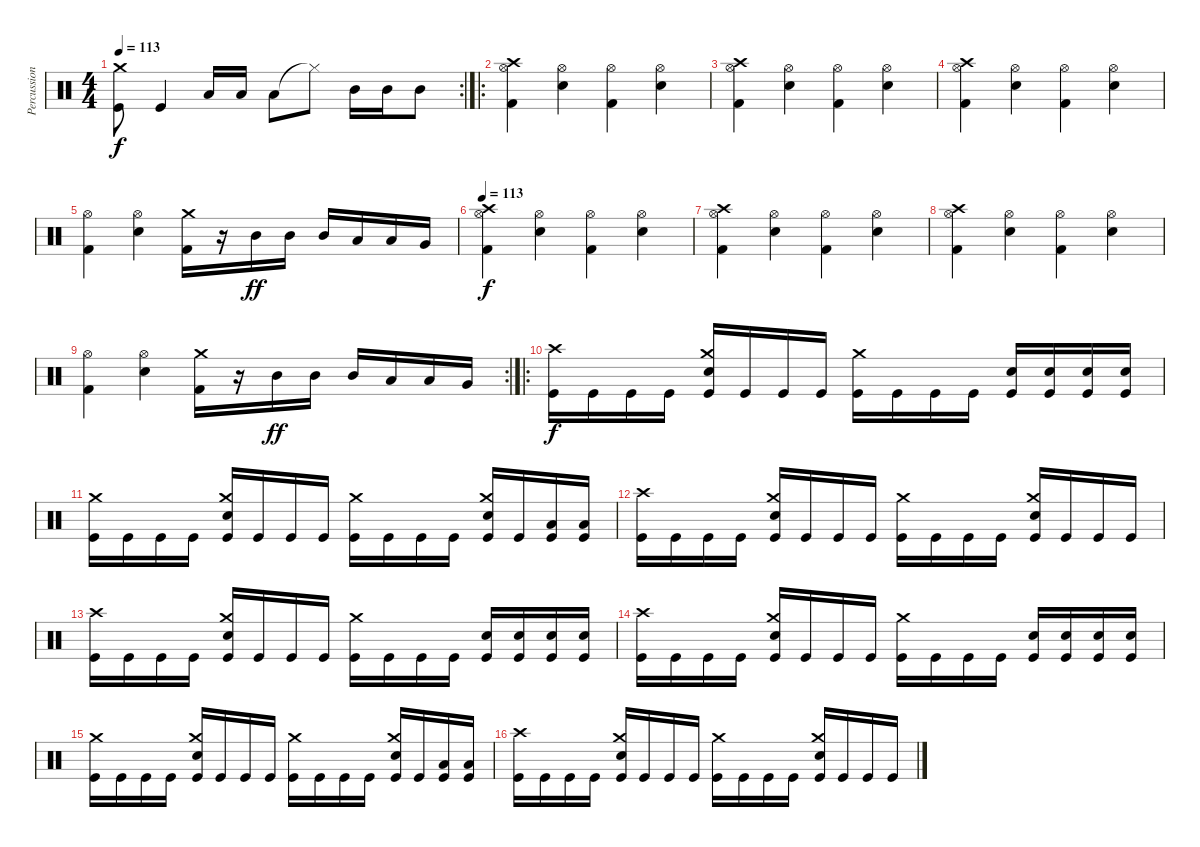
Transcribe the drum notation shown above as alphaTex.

\track ("Percussion" "Percussion") {instrument percussion}
\staff {score}
\articulation defaults
\rc 2
\ts (4 4)
\tempo 113
\clef neutral
\ks c
("Kick (hit)" "Crash medium (hit)").8{dy f} "Kick (hit)".4 "Low Tom (hit)".16 "Low Tom (hit)".16 "Low Tom (hit)".8 "Hi-Hat (closed)"{t}.8 "Mid Tom (hit)".16 "Mid Tom (hit)".16 "Mid Tom (hit)".8 |
\ro
("Kick (hit) 2" "Crash high (hit)" "Hi-Hat (open)").4 ("Hi-Hat (open)" "Snare (hit) 2").4 ("Kick (hit) 2" "Hi-Hat (open)").4 ("Hi-Hat (open)" "Snare (hit) 2").4 |
("Kick (hit) 2" "Crash high (hit)" "Hi-Hat (open)").4 ("Hi-Hat (open)" "Snare (hit) 2").4 ("Kick (hit) 2" "Hi-Hat (open)").4 ("Hi-Hat (open)" "Snare (hit) 2").4 |
("Kick (hit) 2" "Crash high (hit)" "Hi-Hat (open)").4 ("Hi-Hat (open)" "Snare (hit) 2").4 ("Kick (hit) 2" "Hi-Hat (open)").4 ("Hi-Hat (open)" "Snare (hit) 2").4 |
("Kick (hit) 2" "Hi-Hat (open)").4 ("Hi-Hat (open)" "Snare (hit) 2").4 ("Kick (hit) 2" "Crash medium (hit)").16 r.16 "Mid Tom (hit)".16{dy ff} "Mid Tom (hit)".16 "Mid Tom (hit)".16 "Low Tom (hit)".16 "Low Tom (hit)".16 "Very Low Tom (hit)".16 |
\tempo 113
("Kick (hit) 2" "Crash high (hit)" "Hi-Hat (open)").4{dy f} ("Hi-Hat (open)" "Snare (hit) 2").4 ("Kick (hit) 2" "Hi-Hat (open)").4 ("Hi-Hat (open)" "Snare (hit) 2").4 |
("Kick (hit) 2" "Crash high (hit)" "Hi-Hat (open)").4 ("Hi-Hat (open)" "Snare (hit) 2").4 ("Kick (hit) 2" "Hi-Hat (open)").4 ("Hi-Hat (open)" "Snare (hit) 2").4 |
("Kick (hit) 2" "Crash high (hit)" "Hi-Hat (open)").4 ("Hi-Hat (open)" "Snare (hit) 2").4 ("Kick (hit) 2" "Hi-Hat (open)").4 ("Hi-Hat (open)" "Snare (hit) 2").4 |
\rc 2
("Kick (hit) 2" "Hi-Hat (open)").4 ("Hi-Hat (open)" "Snare (hit) 2").4 ("Kick (hit) 2" "Crash medium (hit)").16 r.16 "Mid Tom (hit)".16{dy ff} "Mid Tom (hit)".16 "Mid Tom (hit)".16 "Low Tom (hit)".16 "Low Tom (hit)".16 "Very Low Tom (hit)".16 |
\ro
("Kick (hit)" "Crash high (hit)").16{dy f} "Kick (hit)".16 "Kick (hit)".16 "Kick (hit)".16 ("Kick (hit)" "Crash medium (hit)" "Snare (hit) 2").16 "Kick (hit)".16 "Kick (hit)".16 "Kick (hit)".16 ("Kick (hit)" "Crash medium (hit)").16 "Kick (hit)".16 "Kick (hit)".16 "Kick (hit)".16 ("Kick (hit)" "Snare (hit) 2").16 ("Kick (hit)" "Snare (hit) 2").16 ("Kick (hit)" "Snare (hit) 2").16 ("Kick (hit)" "Snare (hit) 2").16 |
("Kick (hit)" "Crash medium (hit)").16 "Kick (hit)".16 "Kick (hit)".16 "Kick (hit)".16 ("Kick (hit)" "Crash medium (hit)" "Snare (hit) 2").16 "Kick (hit)".16 "Kick (hit)".16 "Kick (hit)".16 ("Kick (hit)" "Crash medium (hit)").16 "Kick (hit)".16 "Kick (hit)".16 "Kick (hit)".16 ("Kick (hit)" "Crash medium (hit)" "Snare (hit) 2").16 "Kick (hit)".16 ("Kick (hit)" "Low Floor Tom (hit)").16 ("Kick (hit)" "Low Floor Tom (hit)").16 |
("Kick (hit)" "Crash high (hit)").16 "Kick (hit)".16 "Kick (hit)".16 "Kick (hit)".16 ("Kick (hit)" "Crash medium (hit)" "Snare (hit) 2").16 "Kick (hit)".16 "Kick (hit)".16 "Kick (hit)".16 ("Kick (hit)" "Crash medium (hit)").16 "Kick (hit)".16 "Kick (hit)".16 "Kick (hit)".16 ("Kick (hit)" "Crash medium (hit)" "Snare (hit) 2").16 "Kick (hit)".16 "Kick (hit)".16 "Kick (hit)".16 |
("Kick (hit)" "Crash high (hit)").16 "Kick (hit)".16 "Kick (hit)".16 "Kick (hit)".16 ("Kick (hit)" "Crash medium (hit)" "Snare (hit) 2").16 "Kick (hit)".16 "Kick (hit)".16 "Kick (hit)".16 ("Kick (hit)" "Crash medium (hit)").16 "Kick (hit)".16 "Kick (hit)".16 "Kick (hit)".16 ("Kick (hit)" "Snare (hit) 2").16 ("Kick (hit)" "Snare (hit) 2").16 ("Kick (hit)" "Snare (hit) 2").16 ("Kick (hit)" "Snare (hit) 2").16 |
("Kick (hit)" "Crash high (hit)").16 "Kick (hit)".16 "Kick (hit)".16 "Kick (hit)".16 ("Kick (hit)" "Crash medium (hit)" "Snare (hit) 2").16 "Kick (hit)".16 "Kick (hit)".16 "Kick (hit)".16 ("Kick (hit)" "Crash medium (hit)").16 "Kick (hit)".16 "Kick (hit)".16 "Kick (hit)".16 ("Kick (hit)" "Snare (hit) 2").16 ("Kick (hit)" "Snare (hit) 2").16 ("Kick (hit)" "Snare (hit) 2").16 ("Kick (hit)" "Snare (hit) 2").16 |
("Kick (hit)" "Crash medium (hit)").16 "Kick (hit)".16 "Kick (hit)".16 "Kick (hit)".16 ("Kick (hit)" "Crash medium (hit)" "Snare (hit) 2").16 "Kick (hit)".16 "Kick (hit)".16 "Kick (hit)".16 ("Kick (hit)" "Crash medium (hit)").16 "Kick (hit)".16 "Kick (hit)".16 "Kick (hit)".16 ("Kick (hit)" "Crash medium (hit)" "Snare (hit) 2").16 "Kick (hit)".16 ("Kick (hit)" "Low Floor Tom (hit)").16 ("Kick (hit)" "Low Floor Tom (hit)").16 |
("Kick (hit)" "Crash high (hit)").16 "Kick (hit)".16 "Kick (hit)".16 "Kick (hit)".16 ("Kick (hit)" "Crash medium (hit)" "Snare (hit) 2").16 "Kick (hit)".16 "Kick (hit)".16 "Kick (hit)".16 ("Kick (hit)" "Crash medium (hit)").16 "Kick (hit)".16 "Kick (hit)".16 "Kick (hit)".16 ("Kick (hit)" "Crash medium (hit)" "Snare (hit) 2").16 "Kick (hit)".16 "Kick (hit)".16 "Kick (hit)".16
